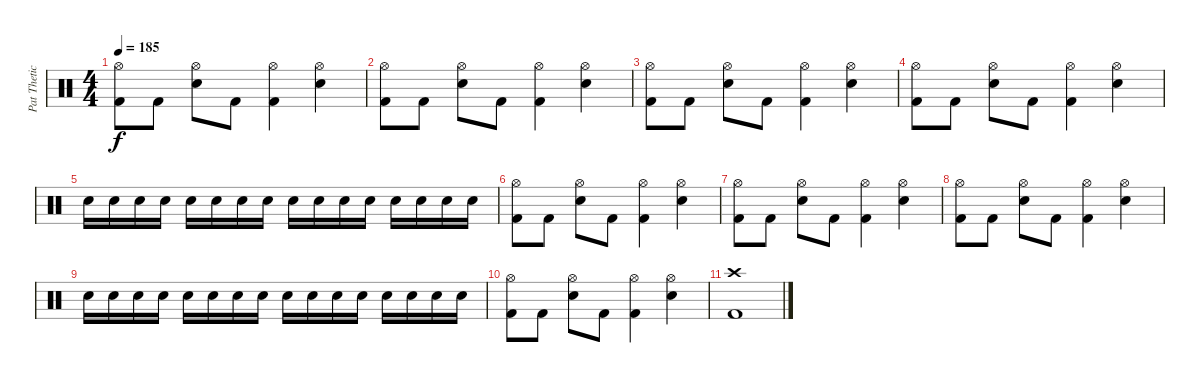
\track ("Pat Thetic" "Pat Thetic") {instrument percussion}
\staff {score}
\articulation defaults
\ts (4 4)
\tempo 185
\clef neutral
\ks c
("Hi-Hat (open)" "Kick (hit) 2").8{dy f} "Kick (hit) 2".8 ("Hi-Hat (open)" "Electric Snare (hit)").8 "Kick (hit) 2".8 ("Hi-Hat (open)" "Kick (hit) 2").4 ("Hi-Hat (open)" "Electric Snare (hit)").4 |
("Hi-Hat (open)" "Kick (hit) 2").8 "Kick (hit) 2".8 ("Hi-Hat (open)" "Electric Snare (hit)").8 "Kick (hit) 2".8 ("Hi-Hat (open)" "Kick (hit) 2").4 ("Hi-Hat (open)" "Electric Snare (hit)").4 |
("Hi-Hat (open)" "Kick (hit) 2").8 "Kick (hit) 2".8 ("Hi-Hat (open)" "Electric Snare (hit)").8 "Kick (hit) 2".8 ("Hi-Hat (open)" "Kick (hit) 2").4 ("Hi-Hat (open)" "Electric Snare (hit)").4 |
("Hi-Hat (open)" "Kick (hit) 2").8 "Kick (hit) 2".8 ("Hi-Hat (open)" "Electric Snare (hit)").8 "Kick (hit) 2".8 ("Hi-Hat (open)" "Kick (hit) 2").4 ("Hi-Hat (open)" "Electric Snare (hit)").4 |
"Electric Snare (hit)".16 "Electric Snare (hit)".16 "Electric Snare (hit)".16 "Electric Snare (hit)".16 "Electric Snare (hit)".16 "Electric Snare (hit)".16 "Electric Snare (hit)".16 "Electric Snare (hit)".16 "Electric Snare (hit)".16 "Electric Snare (hit)".16 "Electric Snare (hit)".16 "Electric Snare (hit)".16 "Electric Snare (hit)".16 "Electric Snare (hit)".16 "Electric Snare (hit)".16 "Electric Snare (hit)".16 |
("Hi-Hat (open)" "Kick (hit) 2").8 "Kick (hit) 2".8 ("Hi-Hat (open)" "Electric Snare (hit)").8 "Kick (hit) 2".8 ("Hi-Hat (open)" "Kick (hit) 2").4 ("Hi-Hat (open)" "Electric Snare (hit)").4 |
("Hi-Hat (open)" "Kick (hit) 2").8 "Kick (hit) 2".8 ("Hi-Hat (open)" "Electric Snare (hit)").8 "Kick (hit) 2".8 ("Hi-Hat (open)" "Kick (hit) 2").4 ("Hi-Hat (open)" "Electric Snare (hit)").4 |
("Hi-Hat (open)" "Kick (hit) 2").8 "Kick (hit) 2".8 ("Hi-Hat (open)" "Electric Snare (hit)").8 "Kick (hit) 2".8 ("Hi-Hat (open)" "Kick (hit) 2").4 ("Hi-Hat (open)" "Electric Snare (hit)").4 |
"Electric Snare (hit)".16 "Electric Snare (hit)".16 "Electric Snare (hit)".16 "Electric Snare (hit)".16 "Electric Snare (hit)".16 "Electric Snare (hit)".16 "Electric Snare (hit)".16 "Electric Snare (hit)".16 "Electric Snare (hit)".16 "Electric Snare (hit)".16 "Electric Snare (hit)".16 "Electric Snare (hit)".16 "Electric Snare (hit)".16 "Electric Snare (hit)".16 "Electric Snare (hit)".16 "Electric Snare (hit)".16 |
("Hi-Hat (open)" "Kick (hit) 2").8 "Kick (hit) 2".8 ("Hi-Hat (open)" "Electric Snare (hit)").8 "Kick (hit) 2".8 ("Hi-Hat (open)" "Kick (hit) 2").4 ("Hi-Hat (open)" "Electric Snare (hit)").4 |
("Crash high (hit)" "Kick (hit) 2").1
